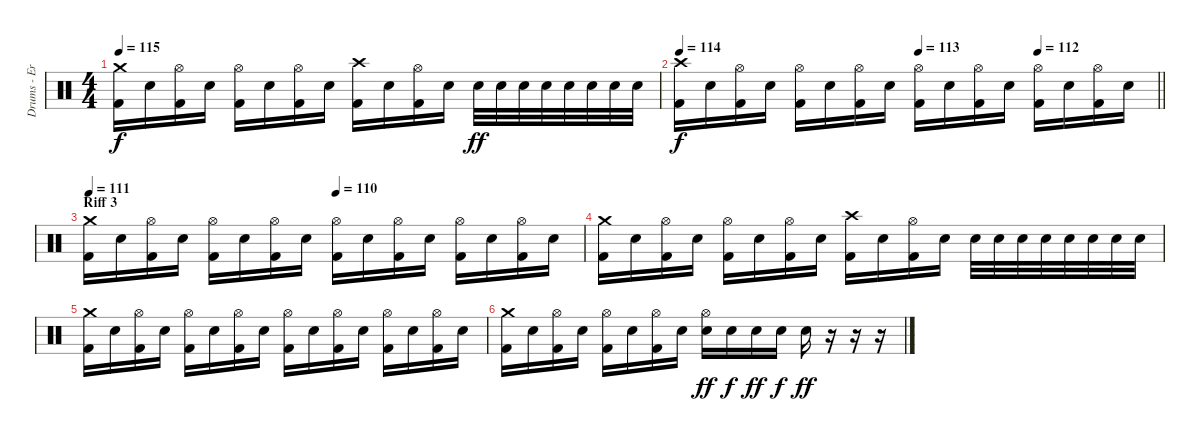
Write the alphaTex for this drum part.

\track ("Drums - Erik Sandin" "Drums - Er") {instrument percussion}
\staff {score}
\articulation defaults
\ts (4 4)
\tempo 115
\clef neutral
\ks c
("Crash medium (hit)" "Kick (hit) 2").16{dy f} "Electric Snare (hit)".16 ("Hi-Hat (open)" "Kick (hit) 2").16 "Electric Snare (hit)".16 ("Hi-Hat (open)" "Kick (hit) 2").16 "Electric Snare (hit)".16 ("Hi-Hat (open)" "Kick (hit) 2").16 "Electric Snare (hit)".16 ("Crash high (hit)" "Kick (hit) 2").16 "Electric Snare (hit)".16 ("Hi-Hat (open)" "Kick (hit) 2").16 "Electric Snare (hit)".16 "Electric Snare (hit)".32{dy ff} "Electric Snare (hit)".32 "Electric Snare (hit)".32 "Electric Snare (hit)".32 "Electric Snare (hit)".32 "Electric Snare (hit)".32 "Electric Snare (hit)".32 "Electric Snare (hit)".32 |
\tempo 114
\tempo (113 0.5)
\tempo (112 0.75)
\barLineRight lightlight
("Crash high (hit)" "Kick (hit) 2").16{dy f} "Electric Snare (hit)".16 ("Hi-Hat (open)" "Kick (hit) 2").16 "Electric Snare (hit)".16 ("Hi-Hat (open)" "Kick (hit) 2").16 "Electric Snare (hit)".16 ("Hi-Hat (open)" "Kick (hit) 2").16 "Electric Snare (hit)".16 ("Hi-Hat (open)" "Kick (hit) 2").16 "Electric Snare (hit)".16 ("Hi-Hat (open)" "Kick (hit) 2").16 "Electric Snare (hit)".16 ("Hi-Hat (open)" "Kick (hit) 2").16 "Electric Snare (hit)".16 ("Hi-Hat (open)" "Kick (hit) 2").16 "Electric Snare (hit)".16 |
\section ("" "Riff 3")
\tempo 111
\tempo (110 0.5)
("Crash medium (hit)" "Kick (hit) 2").16 "Electric Snare (hit)".16 ("Hi-Hat (open)" "Kick (hit) 2").16 "Electric Snare (hit)".16 ("Hi-Hat (open)" "Kick (hit) 2").16 "Electric Snare (hit)".16 ("Hi-Hat (open)" "Kick (hit) 2").16 "Electric Snare (hit)".16 ("Hi-Hat (open)" "Kick (hit) 2").16 "Electric Snare (hit)".16 ("Hi-Hat (open)" "Kick (hit) 2").16 "Electric Snare (hit)".16 ("Hi-Hat (open)" "Kick (hit) 2").16 "Electric Snare (hit)".16 ("Hi-Hat (open)" "Kick (hit) 2").16 "Electric Snare (hit)".16 |
("Crash medium (hit)" "Kick (hit) 2").16 "Electric Snare (hit)".16 ("Hi-Hat (open)" "Kick (hit) 2").16 "Electric Snare (hit)".16 ("Hi-Hat (open)" "Kick (hit) 2").16 "Electric Snare (hit)".16 ("Hi-Hat (open)" "Kick (hit) 2").16 "Electric Snare (hit)".16 ("Crash high (hit)" "Kick (hit) 2").16 "Electric Snare (hit)".16 ("Hi-Hat (open)" "Kick (hit) 2").16 "Electric Snare (hit)".16 "Electric Snare (hit)".32 "Electric Snare (hit)".32 "Electric Snare (hit)".32 "Electric Snare (hit)".32 "Electric Snare (hit)".32 "Electric Snare (hit)".32 "Electric Snare (hit)".32 "Electric Snare (hit)".32 |
("Crash medium (hit)" "Kick (hit) 2").16 "Electric Snare (hit)".16 ("Hi-Hat (open)" "Kick (hit) 2").16 "Electric Snare (hit)".16 ("Hi-Hat (open)" "Kick (hit) 2").16 "Electric Snare (hit)".16 ("Hi-Hat (open)" "Kick (hit) 2").16 "Electric Snare (hit)".16 ("Hi-Hat (open)" "Kick (hit) 2").16 "Electric Snare (hit)".16 ("Hi-Hat (open)" "Kick (hit) 2").16 "Electric Snare (hit)".16 ("Hi-Hat (open)" "Kick (hit) 2").16 "Electric Snare (hit)".16 ("Hi-Hat (open)" "Kick (hit) 2").16 "Electric Snare (hit)".16 |
("Crash medium (hit)" "Kick (hit) 2").16 "Electric Snare (hit)".16 ("Hi-Hat (open)" "Kick (hit) 2").16 "Electric Snare (hit)".16 ("Hi-Hat (open)" "Kick (hit) 2").16 "Electric Snare (hit)".16 ("Hi-Hat (open)" "Kick (hit) 2").16 "Electric Snare (hit)".16 ("Hi-Hat (open)" "Electric Snare (hit)").16{dy ff} "Electric Snare (hit)".16{dy f} "Electric Snare (hit)".16{dy ff} "Electric Snare (hit)".16{dy f} "Electric Snare (hit)".16{dy ff} r.16 r.16 r.16
